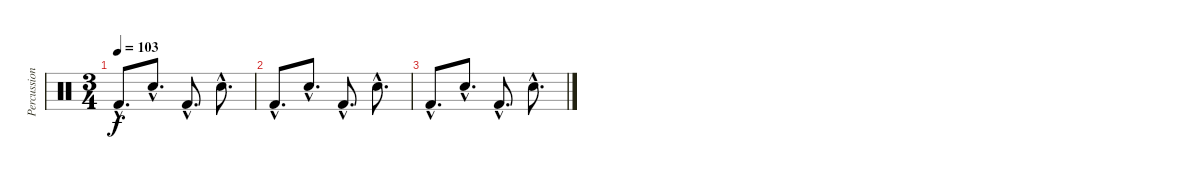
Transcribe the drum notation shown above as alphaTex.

\track ("Percussion" "Percussion") {instrument percussion}
\staff {score}
\articulation defaults
\ts (3 4)
\tempo 103
\clef neutral
\ks c "Kick (hit) 2"{hac}.8{d dy f} "Electric Snare (hit)"{hac}.8{d} "Kick (hit) 2"{hac}.8{d} "Electric Snare (hit)"{hac}.8{d}
|
"Kick (hit) 2"{hac}.8{d} "Electric Snare (hit)"{hac}.8{d} "Kick (hit) 2"{hac}.8{d} "Electric Snare (hit)"{hac}.8{d} |
"Kick (hit) 2"{hac}.8{d} "Electric Snare (hit)"{hac}.8{d} "Kick (hit) 2"{hac}.8{d} "Electric Snare (hit)"{hac}.8{d}
